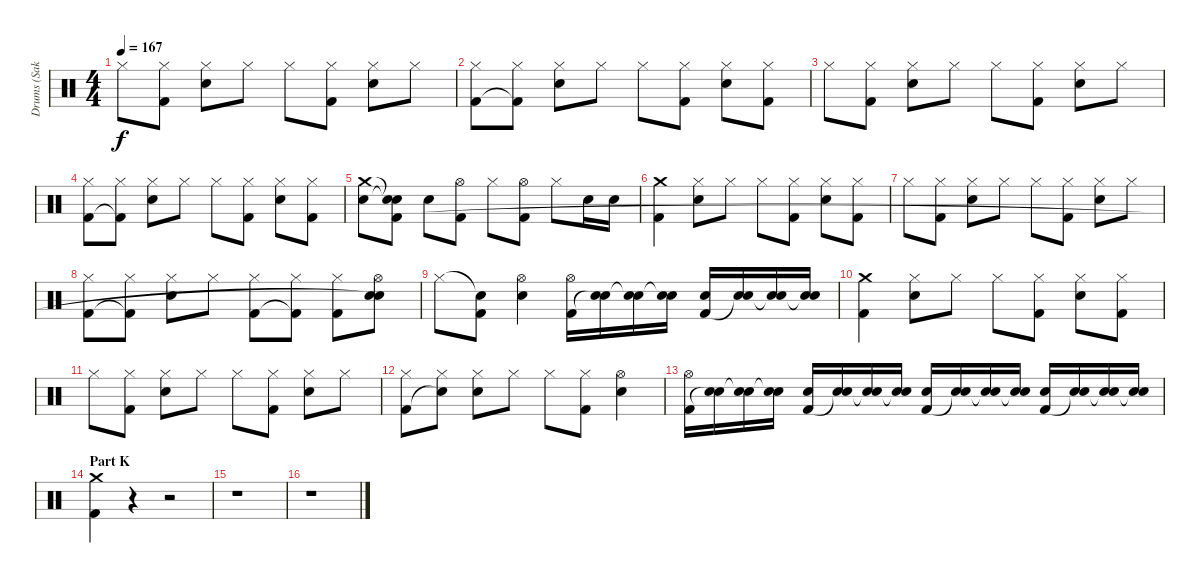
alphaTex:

\track ("Drums (Sakura)" "Drums (Sak") {instrument percussion}
\staff {score}
\articulation defaults
\ts (4 4)
\tempo 167
\clef neutral
\ks c "Hi-Hat (closed)".8{dy f}
("Hi-Hat (closed)" "Kick (hit) 2").8 ("Hi-Hat (closed)" "Electric Snare (hit)").8 "Hi-Hat (closed)".8 "Hi-Hat (closed)".8 ("Hi-Hat (closed)" "Kick (hit) 2").8 ("Hi-Hat (closed)" "Electric Snare (hit)").8 "Hi-Hat (closed)".8 |
("Hi-Hat (closed)" "Kick (hit) 2").8 ("Hi-Hat (closed)" "Kick (hit) 2"{t}).8 ("Hi-Hat (closed)" "Electric Snare (hit)").8 "Hi-Hat (closed)".8 "Hi-Hat (closed)".8 ("Hi-Hat (closed)" "Kick (hit) 2").8 ("Hi-Hat (closed)" "Electric Snare (hit)").8 ("Hi-Hat (closed)" "Kick (hit) 2").8 |
"Hi-Hat (closed)".8 ("Hi-Hat (closed)" "Kick (hit) 2").8 ("Hi-Hat (closed)" "Electric Snare (hit)").8 "Hi-Hat (closed)".8 "Hi-Hat (closed)".8 ("Hi-Hat (closed)" "Kick (hit) 2").8 ("Hi-Hat (closed)" "Electric Snare (hit)").8 "Hi-Hat (closed)".8 |
("Hi-Hat (closed)" "Kick (hit) 2").8 ("Hi-Hat (closed)" "Kick (hit) 2"{t}).8 ("Hi-Hat (closed)" "Electric Snare (hit)").8 "Hi-Hat (closed)".8 "Hi-Hat (closed)".8 ("Hi-Hat (closed)" "Kick (hit) 2").8 ("Hi-Hat (closed)" "Electric Snare (hit)").8 ("Hi-Hat (closed)" "Kick (hit) 2").8 |
("Crash medium (hit)" "Electric Snare (hit)").8 ("Snare (hit)"{t} "Snare (hit)"{t} "Kick (hit) 2").8 "Electric Snare (hit)".8 ("Hi-Hat (open)" "Kick (hit) 2").8 "Hi-Hat (closed)".8 ("Hi-Hat (open)" "Kick (hit) 2").8 "Hi-Hat (closed)".8 "Electric Snare (hit)".16 "Electric Snare (hit)".16 |
("Crash medium (hit)" "Kick (hit) 2").4 ("Hi-Hat (closed)" "Electric Snare (hit)").8 "Hi-Hat (closed)".8 "Hi-Hat (closed)".8 ("Hi-Hat (closed)" "Kick (hit) 2").8 ("Hi-Hat (closed)" "Electric Snare (hit)").8 ("Hi-Hat (closed)" "Kick (hit) 2").8 |
"Hi-Hat (closed)".8 ("Hi-Hat (closed)" "Kick (hit) 2").8 ("Hi-Hat (closed)" "Electric Snare (hit)").8 "Hi-Hat (closed)".8 "Hi-Hat (closed)".8 ("Hi-Hat (closed)" "Kick (hit) 2").8 ("Hi-Hat (closed)" "Electric Snare (hit)").8 "Hi-Hat (closed)".8 |
("Hi-Hat (closed)" "Kick (hit) 2").8 ("Hi-Hat (closed)" "Kick (hit) 2"{t}).8 ("Hi-Hat (closed)" "Electric Snare (hit)").8 "Hi-Hat (closed)".8 ("Hi-Hat (closed)" "Kick (hit) 2").8 ("Hi-Hat (closed)" "Kick (hit) 2"{t}).8 ("Hi-Hat (closed)" "Kick (hit) 2").8 ("Hi-Hat (open)" "Electric Snare (hit)" "Snare (hit)"{t}).8 |
"Hi-Hat (closed)".8 ("Snare (hit)"{t} "Kick (hit) 2").8 ("Hi-Hat (open)" "Electric Snare (hit)").4 ("Hi-Hat (open)" "Kick (hit) 2").16 ("Electric Snare (hit)" "Snare (hit)"{t}).16 ("Electric Snare (hit)" "Snare (hit)"{t}).16 ("Electric Snare (hit)" "Snare (hit)"{t}).16 ("Electric Snare (hit)" "Kick (hit) 2").16 ("Electric Snare (hit)" "Snare (hit)"{t}).16 ("Electric Snare (hit)" "Snare (hit)"{t}).16 ("Electric Snare (hit)" "Snare (hit)"{t}).16 |
("Crash medium (hit)" "Kick (hit) 2").4 ("Hi-Hat (closed)" "Electric Snare (hit)").8 "Hi-Hat (closed)".8 "Hi-Hat (closed)".8 ("Hi-Hat (closed)" "Kick (hit) 2").8 ("Hi-Hat (closed)" "Electric Snare (hit)").8 ("Hi-Hat (closed)" "Kick (hit) 2").8 |
"Hi-Hat (closed)".8 ("Hi-Hat (closed)" "Kick (hit) 2").8 ("Hi-Hat (closed)" "Electric Snare (hit)").8 "Hi-Hat (closed)".8 "Hi-Hat (closed)".8 ("Hi-Hat (closed)" "Kick (hit) 2").8 ("Hi-Hat (closed)" "Electric Snare (hit)").8 "Hi-Hat (closed)".8 |
("Hi-Hat (closed)" "Kick (hit) 2").8 ("Hi-Hat (closed)" "Snare (hit)"{t}).8 ("Hi-Hat (closed)" "Electric Snare (hit)").8 "Hi-Hat (closed)".8 "Hi-Hat (closed)".8 ("Hi-Hat (closed)" "Kick (hit) 2").8 ("Hi-Hat (open)" "Electric Snare (hit)").4 |
("Hi-Hat (open)" "Kick (hit) 2").16 ("Electric Snare (hit)" "Snare (hit)"{t}).16 ("Electric Snare (hit)" "Snare (hit)"{t}).16 ("Electric Snare (hit)" "Snare (hit)"{t}).16 ("Electric Snare (hit)" "Kick (hit) 2").16 ("Electric Snare (hit)" "Snare (hit)"{t}).16 ("Electric Snare (hit)" "Snare (hit)"{t}).16 ("Electric Snare (hit)" "Snare (hit)"{t}).16 ("Electric Snare (hit)" "Kick (hit) 2").16 ("Electric Snare (hit)" "Snare (hit)"{t}).16 ("Electric Snare (hit)" "Snare (hit)"{t}).16 ("Electric Snare (hit)" "Snare (hit)"{t}).16 ("Electric Snare (hit)" "Kick (hit) 2").16 ("Electric Snare (hit)" "Snare (hit)"{t}).16 ("Electric Snare (hit)" "Snare (hit)"{t}).16 ("Electric Snare (hit)" "Snare (hit)"{t}).16 |
\section ("" "Part K")
("Crash medium (hit)" "Kick (hit) 2").4 r.4 r.2 |
r.1 |
r.1
